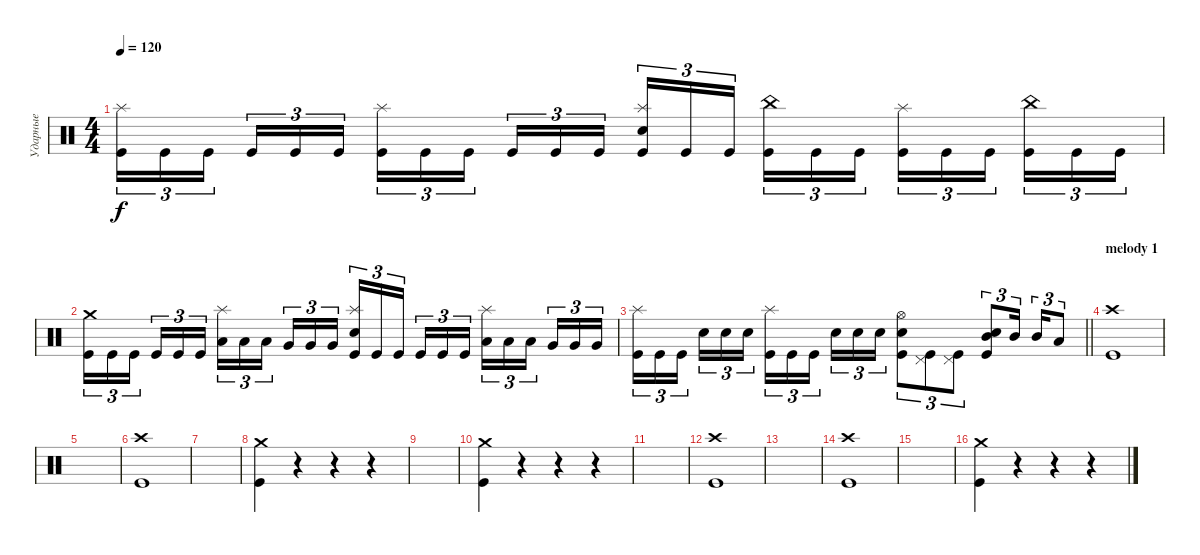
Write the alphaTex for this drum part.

\track ("Ударные" "Ударные") {instrument percussion}
\staff {score}
\articulation defaults
\ts (4 4)
\tempo 120
\clef neutral
\ks c
("Kick (hit)" "Splash (hit)").16{tu (3 2) dy f} "Kick (hit)".16{tu (3 2)} "Kick (hit)".16{tu (3 2) beam splitsecondary} "Kick (hit)".16{tu (3 2)} "Kick (hit)".16{tu (3 2)} "Kick (hit)".16{tu (3 2)} ("Kick (hit)" "Splash (hit)").16{tu (3 2)} "Kick (hit)".16{tu (3 2)} "Kick (hit)".16{tu (3 2) beam splitsecondary} "Kick (hit)".16{tu (3 2)} "Kick (hit)".16{tu (3 2)} "Kick (hit)".16{tu (3 2)} ("Kick (hit)" "Electric Snare (hit)" "Splash (hit)").16{tu (3 2)} "Kick (hit)".16{tu (3 2)} "Kick (hit)".16{tu (3 2) beam splitsecondary} ("Kick (hit)" "China (hit)").16{tu (3 2)} "Kick (hit)".16{tu (3 2)} "Kick (hit)".16{tu (3 2)} ("Kick (hit)" "Splash (hit)").16{tu (3 2)} "Kick (hit)".16{tu (3 2)} "Kick (hit)".16{tu (3 2) beam splitsecondary} ("Kick (hit)" "China (hit)").16{tu (3 2)} "Kick (hit)".16{tu (3 2)} "Kick (hit)".16{tu (3 2)} |
("Kick (hit)" "Crash medium (hit)").16{tu (3 2)} "Kick (hit)".16{tu (3 2)} "Kick (hit)".16{tu (3 2) beam splitsecondary} "Kick (hit)".16{tu (3 2)} "Kick (hit)".16{tu (3 2)} "Kick (hit)".16{tu (3 2)} ("Low Tom (hit)" "Splash (hit)").16{tu (3 2)} "Low Tom (hit)".16{tu (3 2)} "Low Tom (hit)".16{tu (3 2) beam splitsecondary} "Very Low Tom (hit)".16{tu (3 2)} "Very Low Tom (hit)".16{tu (3 2)} "Very Low Tom (hit)".16{tu (3 2)} ("Kick (hit)" "Electric Snare (hit)" "Splash (hit)").16{tu (3 2)} "Kick (hit)".16{tu (3 2)} "Kick (hit)".16{tu (3 2) beam splitsecondary} "Kick (hit)".16{tu (3 2)} "Kick (hit)".16{tu (3 2)} "Kick (hit)".16{tu (3 2)} ("Low Tom (hit)" "Splash (hit)").16{tu (3 2)} "Low Tom (hit)".16{tu (3 2)} "Low Tom (hit)".16{tu (3 2) beam splitsecondary} "Very Low Tom (hit)".16{tu (3 2)} "Very Low Tom (hit)".16{tu (3 2)} "Very Low Tom (hit)".16{tu (3 2)} |
\barLineRight lightlight
("Kick (hit)" "Splash (hit)").16{tu (3 2)} "Kick (hit)".16{tu (3 2)} "Kick (hit)".16{tu (3 2) beam splitsecondary} "Electric Snare (hit)".16{tu (3 2)} "Electric Snare (hit)".16{tu (3 2)} "Electric Snare (hit)".16{tu (3 2)} ("Kick (hit)" "Splash (hit)").16{tu (3 2)} "Kick (hit)".16{tu (3 2)} "Kick (hit)".16{tu (3 2) beam splitsecondary} "Electric Snare (hit)".16{tu (3 2)} "Electric Snare (hit)".16{tu (3 2)} "Electric Snare (hit)".16{tu (3 2)} ("Hi-Hat (open)" "Electric Snare (hit)" "Kick (hit)").8{tu (3 2)} ("Pedal Hi-Hat (hit)" "Kick (hit)").8{tu (3 2)} ("Pedal Hi-Hat (hit)" "Kick (hit)").8{tu (3 2)} ("Mid Tom (hit)" "Kick (hit)" "Electric Snare (hit)").8{tu (3 2)} "Mid Tom (hit)".16{tu (3 2) beam splitsecondary} "Mid Tom (hit)".16{tu (3 2)} "Low Tom (hit)".8{tu (3 2)} |
\section ("" "melody 1")
("Crash high (hit)" "Kick (hit)").1 |
|
("Crash high (hit)" "Kick (hit)").1 |
|
("Crash medium (hit)" "Kick (hit)").4 r.4 r.4 r.4 |
|
("Crash medium (hit)" "Kick (hit)").4 r.4 r.4 r.4 |
|
("Crash high (hit)" "Kick (hit)").1 |
|
("Crash high (hit)" "Kick (hit)").1 |
|
("Crash medium (hit)" "Kick (hit)").4 r.4 r.4 r.4
